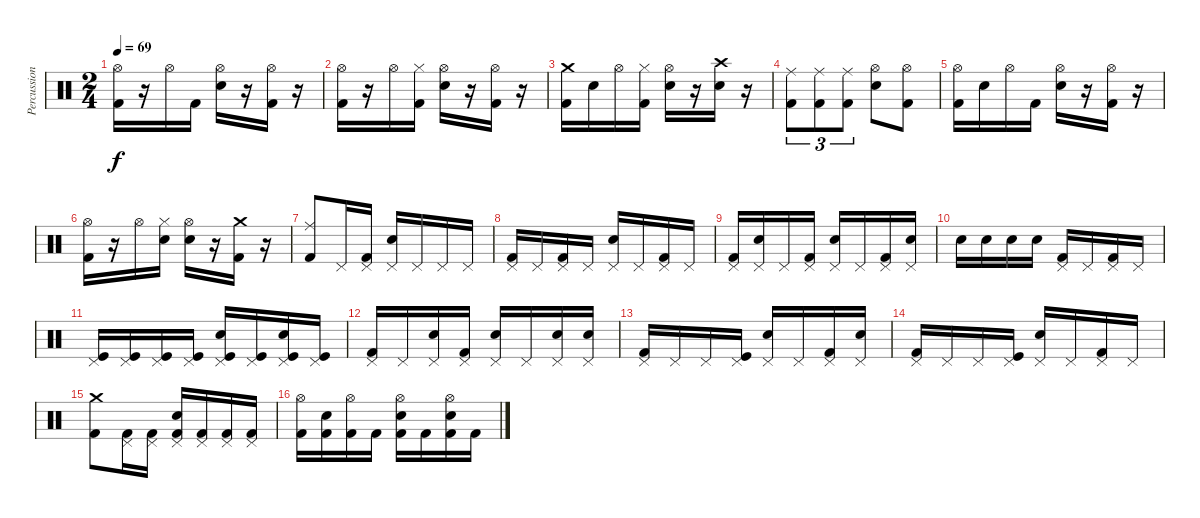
\track ("Percussions" "Percussion") {instrument percussion}
\staff {score}
\articulation defaults
\ts (2 4)
\tempo 69
\clef neutral
\ks c
("Hi-Hat (open)" "Kick (hit) 2").16{dy f} r.16 "Hi-Hat (open)".16 "Kick (hit) 2".16 ("Hi-Hat (open)" "Electric Snare (hit)").16 r.16 ("Hi-Hat (open)" "Kick (hit) 2").16 r.16 |
("Hi-Hat (open)" "Kick (hit) 2").16 r.16 "Hi-Hat (open)".16 ("Hi-Hat (closed)" "Kick (hit) 2").16 ("Hi-Hat (open)" "Electric Snare (hit)").16 r.16 ("Hi-Hat (open)" "Kick (hit) 2").16 r.16 |
("Crash medium (hit)" "Kick (hit) 2").16 "Electric Snare (hit)".16 "Hi-Hat (open)".16 ("Hi-Hat (closed)" "Kick (hit) 2").16 ("Hi-Hat (open)" "Electric Snare (hit)").16 r.16 ("Crash high (hit)" "Electric Snare (hit)").16 r.16 |
("Ride (middle)" "Kick (hit) 2").8{tu (3 2)} ("Ride (middle)" "Kick (hit) 2").8{tu (3 2)} ("Ride (middle)" "Kick (hit) 2").8{tu (3 2)} ("Hi-Hat (open)" "Electric Snare (hit)").8 ("Hi-Hat (open)" "Kick (hit) 2").8 |
("Hi-Hat (open)" "Kick (hit) 2").16 "Electric Snare (hit)".16 "Hi-Hat (open)".16 "Kick (hit) 2".16 ("Hi-Hat (open)" "Electric Snare (hit)").16 r.16 ("Hi-Hat (open)" "Kick (hit) 2").16 r.16 |
("Hi-Hat (open)" "Kick (hit) 2").16 r.16 "Hi-Hat (open)".16 ("Hi-Hat (closed)" "Electric Snare (hit)").16 ("Hi-Hat (open)" "Electric Snare (hit)").16 r.16 ("Crash medium (hit)" "Kick (hit) 2").16 r.16 |
("Ride (middle)" "Kick (hit) 2").8 "Pedal Hi-Hat (hit)".16 ("Pedal Hi-Hat (hit)" "Kick (hit) 2").16 ("Pedal Hi-Hat (hit)" "Electric Snare (hit)").16 "Pedal Hi-Hat (hit)".16 "Pedal Hi-Hat (hit)".16 "Pedal Hi-Hat (hit)".16 |
("Pedal Hi-Hat (hit)" "Kick (hit) 2").16 "Pedal Hi-Hat (hit)".16 ("Pedal Hi-Hat (hit)" "Kick (hit) 2").16 "Pedal Hi-Hat (hit)".16 ("Pedal Hi-Hat (hit)" "Electric Snare (hit)").16 "Pedal Hi-Hat (hit)".16 ("Pedal Hi-Hat (hit)" "Kick (hit) 2").16 "Pedal Hi-Hat (hit)".16 |
("Pedal Hi-Hat (hit)" "Kick (hit) 2").16 ("Pedal Hi-Hat (hit)" "Electric Snare (hit)").16 "Pedal Hi-Hat (hit)".16 ("Pedal Hi-Hat (hit)" "Kick (hit) 2").16 ("Pedal Hi-Hat (hit)" "Electric Snare (hit)").16 "Pedal Hi-Hat (hit)".16 ("Pedal Hi-Hat (hit)" "Kick (hit) 2").16 ("Pedal Hi-Hat (hit)" "Electric Snare (hit)").16 |
"Electric Snare (hit)".16 "Electric Snare (hit)".16 "Electric Snare (hit)".16 "Electric Snare (hit)".16 ("Pedal Hi-Hat (hit)" "Kick (hit) 2").16 "Pedal Hi-Hat (hit)".16 ("Pedal Hi-Hat (hit)" "Kick (hit) 2").16 "Pedal Hi-Hat (hit)".16 |
("Pedal Hi-Hat (hit)" "Kick (hit)").16 ("Pedal Hi-Hat (hit)" "Kick (hit)").16 ("Pedal Hi-Hat (hit)" "Kick (hit)").16 ("Pedal Hi-Hat (hit)" "Kick (hit)").16 ("Pedal Hi-Hat (hit)" "Electric Snare (hit)" "Kick (hit)").16 ("Pedal Hi-Hat (hit)" "Kick (hit)").16 ("Pedal Hi-Hat (hit)" "Electric Snare (hit)" "Kick (hit)").16 ("Pedal Hi-Hat (hit)" "Kick (hit)").16 |
("Pedal Hi-Hat (hit)" "Kick (hit) 2").16 "Pedal Hi-Hat (hit)".16 ("Pedal Hi-Hat (hit)" "Electric Snare (hit)").16 ("Pedal Hi-Hat (hit)" "Kick (hit) 2").16 ("Pedal Hi-Hat (hit)" "Electric Snare (hit)").16 "Pedal Hi-Hat (hit)".16 ("Pedal Hi-Hat (hit)" "Electric Snare (hit)").16 ("Pedal Hi-Hat (hit)" "Electric Snare (hit)").16 |
("Pedal Hi-Hat (hit)" "Kick (hit) 2").16 "Pedal Hi-Hat (hit)".16 "Pedal Hi-Hat (hit)".16 ("Pedal Hi-Hat (hit)" "Kick (hit)").16 ("Pedal Hi-Hat (hit)" "Electric Snare (hit)").16 "Pedal Hi-Hat (hit)".16 ("Pedal Hi-Hat (hit)" "Kick (hit) 2").16 ("Pedal Hi-Hat (hit)" "Electric Snare (hit)").16 |
("Pedal Hi-Hat (hit)" "Kick (hit) 2").16 "Pedal Hi-Hat (hit)".16 "Pedal Hi-Hat (hit)".16 ("Pedal Hi-Hat (hit)" "Kick (hit)").16 ("Pedal Hi-Hat (hit)" "Electric Snare (hit)").16 "Pedal Hi-Hat (hit)".16 ("Pedal Hi-Hat (hit)" "Kick (hit) 2").16 "Pedal Hi-Hat (hit)".16 |
("Crash medium (hit)" "Kick (hit) 2").8 ("Pedal Hi-Hat (hit)" "Kick (hit) 2").16 ("Pedal Hi-Hat (hit)" "Kick (hit) 2").16 ("Pedal Hi-Hat (hit)" "Electric Snare (hit)" "Kick (hit) 2").16 ("Pedal Hi-Hat (hit)" "Kick (hit) 2").16 ("Pedal Hi-Hat (hit)" "Kick (hit) 2").16 ("Pedal Hi-Hat (hit)" "Kick (hit) 2").16 |
("Hi-Hat (open)" "Kick (hit) 2").16 ("Electric Snare (hit)" "Kick (hit) 2").16 ("Hi-Hat (open)" "Kick (hit) 2").16 "Kick (hit) 2".16 ("Hi-Hat (open)" "Electric Snare (hit)" "Kick (hit) 2").16 "Kick (hit) 2".16 ("Hi-Hat (open)" "Electric Snare (hit)" "Kick (hit) 2").16 "Kick (hit) 2".16
